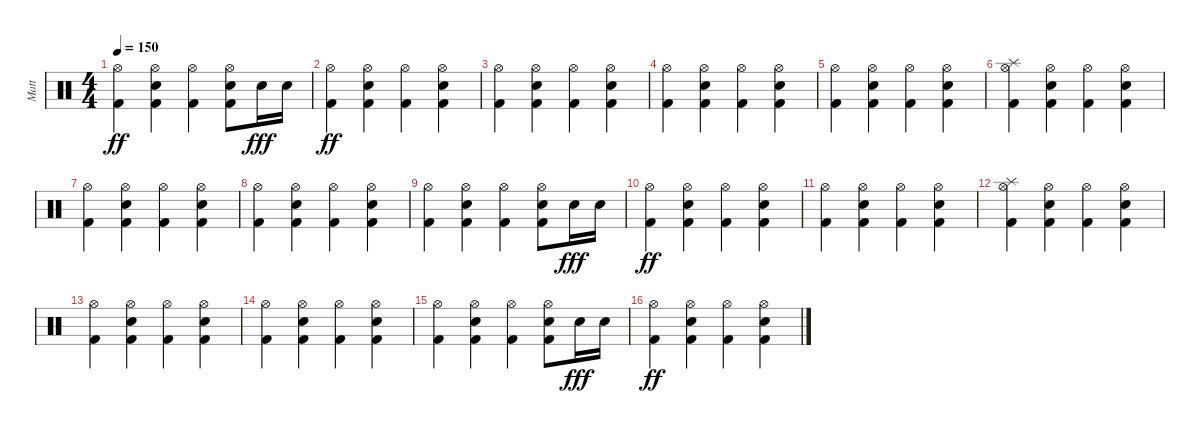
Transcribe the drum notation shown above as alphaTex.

\track ("Matt" "Matt") {instrument percussion}
\staff {score}
\articulation defaults
\ts (4 4)
\tempo 150
\clef neutral
\ks c
("Hi-Hat (open)" "Kick (hit) 2").4{dy ff} ("Hi-Hat (open)" "Electric Snare (hit)" "Kick (hit) 2").4 ("Hi-Hat (open)" "Kick (hit) 2").4 ("Hi-Hat (open)" "Electric Snare (hit)" "Kick (hit) 2").8 "Electric Snare (hit)".16{dy fff} "Electric Snare (hit)".16 |
("Hi-Hat (open)" "Kick (hit) 2").4{dy ff} ("Hi-Hat (open)" "Electric Snare (hit)" "Kick (hit) 2").4 ("Hi-Hat (open)" "Kick (hit) 2").4 ("Hi-Hat (open)" "Electric Snare (hit)" "Kick (hit) 2").4 |
("Hi-Hat (open)" "Kick (hit) 2").4 ("Hi-Hat (open)" "Electric Snare (hit)" "Kick (hit) 2").4 ("Hi-Hat (open)" "Kick (hit) 2").4 ("Hi-Hat (open)" "Electric Snare (hit)" "Kick (hit) 2").4 |
("Hi-Hat (open)" "Kick (hit) 2").4 ("Hi-Hat (open)" "Electric Snare (hit)" "Kick (hit) 2").4 ("Hi-Hat (open)" "Kick (hit) 2").4 ("Hi-Hat (open)" "Electric Snare (hit)" "Kick (hit) 2").4 |
("Hi-Hat (open)" "Kick (hit) 2").4 ("Hi-Hat (open)" "Electric Snare (hit)" "Kick (hit) 2").4 ("Hi-Hat (open)" "Kick (hit) 2").4 ("Hi-Hat (open)" "Electric Snare (hit)" "Kick (hit) 2").4 |
("Splash (hit)" "Hi-Hat (open)" "Kick (hit) 2").4 ("Hi-Hat (open)" "Electric Snare (hit)" "Kick (hit) 2").4 ("Hi-Hat (open)" "Kick (hit) 2").4 ("Hi-Hat (open)" "Electric Snare (hit)" "Kick (hit) 2").4 |
("Hi-Hat (open)" "Kick (hit) 2").4 ("Hi-Hat (open)" "Electric Snare (hit)" "Kick (hit) 2").4 ("Hi-Hat (open)" "Kick (hit) 2").4 ("Hi-Hat (open)" "Electric Snare (hit)" "Kick (hit) 2").4 |
("Hi-Hat (open)" "Kick (hit) 2").4 ("Hi-Hat (open)" "Electric Snare (hit)" "Kick (hit) 2").4 ("Hi-Hat (open)" "Kick (hit) 2").4 ("Hi-Hat (open)" "Electric Snare (hit)" "Kick (hit) 2").4 |
("Hi-Hat (open)" "Kick (hit) 2").4 ("Hi-Hat (open)" "Electric Snare (hit)" "Kick (hit) 2").4 ("Hi-Hat (open)" "Kick (hit) 2").4 ("Hi-Hat (open)" "Electric Snare (hit)" "Kick (hit) 2").8 "Electric Snare (hit)".16{dy fff} "Electric Snare (hit)".16 |
("Hi-Hat (open)" "Kick (hit) 2").4{dy ff} ("Hi-Hat (open)" "Electric Snare (hit)" "Kick (hit) 2").4 ("Hi-Hat (open)" "Kick (hit) 2").4 ("Hi-Hat (open)" "Electric Snare (hit)" "Kick (hit) 2").4 |
("Hi-Hat (open)" "Kick (hit) 2").4 ("Hi-Hat (open)" "Electric Snare (hit)" "Kick (hit) 2").4 ("Hi-Hat (open)" "Kick (hit) 2").4 ("Hi-Hat (open)" "Electric Snare (hit)" "Kick (hit) 2").4 |
("Splash (hit)" "Hi-Hat (open)" "Kick (hit) 2").4 ("Hi-Hat (open)" "Electric Snare (hit)" "Kick (hit) 2").4 ("Hi-Hat (open)" "Kick (hit) 2").4 ("Hi-Hat (open)" "Electric Snare (hit)" "Kick (hit) 2").4 |
("Hi-Hat (open)" "Kick (hit) 2").4 ("Hi-Hat (open)" "Electric Snare (hit)" "Kick (hit) 2").4 ("Hi-Hat (open)" "Kick (hit) 2").4 ("Hi-Hat (open)" "Electric Snare (hit)" "Kick (hit) 2").4 |
("Hi-Hat (open)" "Kick (hit) 2").4 ("Hi-Hat (open)" "Electric Snare (hit)" "Kick (hit) 2").4 ("Hi-Hat (open)" "Kick (hit) 2").4 ("Hi-Hat (open)" "Electric Snare (hit)" "Kick (hit) 2").4 |
("Hi-Hat (open)" "Kick (hit) 2").4 ("Hi-Hat (open)" "Electric Snare (hit)" "Kick (hit) 2").4 ("Hi-Hat (open)" "Kick (hit) 2").4 ("Hi-Hat (open)" "Electric Snare (hit)" "Kick (hit) 2").8 "Electric Snare (hit)".16{dy fff} "Electric Snare (hit)".16 |
("Hi-Hat (open)" "Kick (hit) 2").4{dy ff} ("Hi-Hat (open)" "Electric Snare (hit)" "Kick (hit) 2").4 ("Hi-Hat (open)" "Kick (hit) 2").4 ("Hi-Hat (open)" "Electric Snare (hit)" "Kick (hit) 2").4
